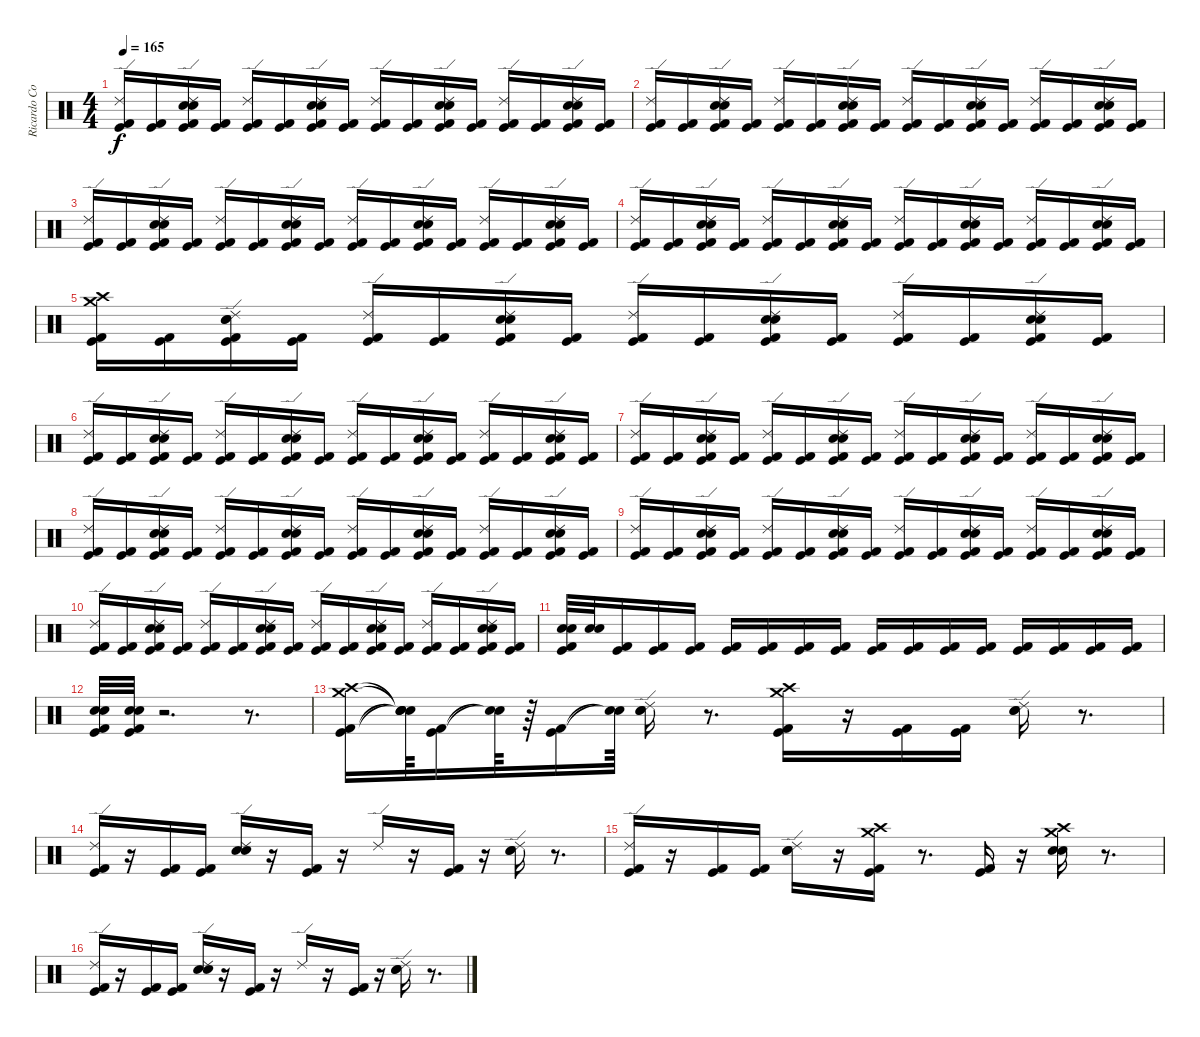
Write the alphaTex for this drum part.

\track ("Ricardo Confessori" "Ricardo Co") {instrument percussion}
\staff {score}
\articulation defaults
\ts (4 4)
\tempo 165
\clef neutral
\ks c
("Ride (edge) 2" "Kick (hit) 2" "Kick (hit)").16{dy f} ("Kick (hit) 2" "Kick (hit)").16 ("Ride (edge) 2" "Electric Snare (hit)" "Snare (hit) 2" "Kick (hit) 2" "Kick (hit)").16 ("Kick (hit) 2" "Kick (hit)").16 ("Ride (edge) 2" "Kick (hit) 2" "Kick (hit)").16 ("Kick (hit) 2" "Kick (hit)").16 ("Ride (edge) 2" "Electric Snare (hit)" "Snare (hit) 2" "Kick (hit) 2" "Kick (hit)").16 ("Kick (hit) 2" "Kick (hit)").16 ("Ride (edge) 2" "Kick (hit) 2" "Kick (hit)").16 ("Kick (hit) 2" "Kick (hit)").16 ("Ride (edge) 2" "Electric Snare (hit)" "Snare (hit) 2" "Kick (hit) 2" "Kick (hit)").16 ("Kick (hit) 2" "Kick (hit)").16 ("Ride (edge) 2" "Kick (hit) 2" "Kick (hit)").16 ("Kick (hit) 2" "Kick (hit)").16 ("Ride (edge) 2" "Electric Snare (hit)" "Snare (hit) 2" "Kick (hit) 2" "Kick (hit)").16 ("Kick (hit) 2" "Kick (hit)").16 |
("Ride (edge) 2" "Kick (hit) 2" "Kick (hit)").16 ("Kick (hit) 2" "Kick (hit)").16 ("Ride (edge) 2" "Electric Snare (hit)" "Snare (hit) 2" "Kick (hit) 2" "Kick (hit)").16 ("Kick (hit) 2" "Kick (hit)").16 ("Ride (edge) 2" "Kick (hit) 2" "Kick (hit)").16 ("Kick (hit) 2" "Kick (hit)").16 ("Ride (edge) 2" "Electric Snare (hit)" "Snare (hit) 2" "Kick (hit) 2" "Kick (hit)").16 ("Kick (hit) 2" "Kick (hit)").16 ("Ride (edge) 2" "Kick (hit) 2" "Kick (hit)").16 ("Kick (hit) 2" "Kick (hit)").16 ("Ride (edge) 2" "Electric Snare (hit)" "Snare (hit) 2" "Kick (hit) 2" "Kick (hit)").16 ("Kick (hit) 2" "Kick (hit)").16 ("Ride (edge) 2" "Kick (hit) 2" "Kick (hit)").16 ("Kick (hit) 2" "Kick (hit)").16 ("Ride (edge) 2" "Electric Snare (hit)" "Snare (hit) 2" "Kick (hit) 2" "Kick (hit)").16 ("Kick (hit) 2" "Kick (hit)").16 |
("Ride (edge) 2" "Kick (hit) 2" "Kick (hit)").16 ("Kick (hit) 2" "Kick (hit)").16 ("Ride (edge) 2" "Electric Snare (hit)" "Snare (hit) 2" "Kick (hit) 2" "Kick (hit)").16 ("Kick (hit) 2" "Kick (hit)").16 ("Ride (edge) 2" "Kick (hit) 2" "Kick (hit)").16 ("Kick (hit) 2" "Kick (hit)").16 ("Ride (edge) 2" "Electric Snare (hit)" "Snare (hit) 2" "Kick (hit) 2" "Kick (hit)").16 ("Kick (hit) 2" "Kick (hit)").16 ("Ride (edge) 2" "Kick (hit) 2" "Kick (hit)").16 ("Kick (hit) 2" "Kick (hit)").16 ("Ride (edge) 2" "Electric Snare (hit)" "Snare (hit) 2" "Kick (hit) 2" "Kick (hit)").16 ("Kick (hit) 2" "Kick (hit)").16 ("Ride (edge) 2" "Kick (hit) 2" "Kick (hit)").16 ("Kick (hit) 2" "Kick (hit)").16 ("Ride (edge) 2" "Electric Snare (hit)" "Snare (hit) 2" "Kick (hit) 2" "Kick (hit)").16 ("Kick (hit) 2" "Kick (hit)").16 |
("Ride (edge) 2" "Kick (hit) 2" "Kick (hit)").16 ("Kick (hit) 2" "Kick (hit)").16 ("Ride (edge) 2" "Electric Snare (hit)" "Snare (hit) 2" "Kick (hit) 2" "Kick (hit)").16 ("Kick (hit) 2" "Kick (hit)").16 ("Ride (edge) 2" "Kick (hit) 2" "Kick (hit)").16 ("Kick (hit) 2" "Kick (hit)").16 ("Ride (edge) 2" "Electric Snare (hit)" "Snare (hit) 2" "Kick (hit) 2" "Kick (hit)").16 ("Kick (hit) 2" "Kick (hit)").16 ("Ride (edge) 2" "Kick (hit) 2" "Kick (hit)").16 ("Kick (hit) 2" "Kick (hit)").16 ("Ride (edge) 2" "Electric Snare (hit)" "Snare (hit) 2" "Kick (hit) 2" "Kick (hit)").16 ("Kick (hit) 2" "Kick (hit)").16 ("Ride (edge) 2" "Kick (hit) 2" "Kick (hit)").16 ("Kick (hit) 2" "Kick (hit)").16 ("Ride (edge) 2" "Electric Snare (hit)" "Snare (hit) 2" "Kick (hit) 2" "Kick (hit)").16 ("Kick (hit) 2" "Kick (hit)").16 |
("Crash high (hit)" "Crash medium (hit)" "Kick (hit) 2" "Kick (hit)").16 ("Kick (hit) 2" "Kick (hit)").16 ("Ride (edge) 2" "Electric Snare (hit)" "Snare (hit) 2" "Kick (hit) 2" "Kick (hit)").16 ("Kick (hit) 2" "Kick (hit)").16 ("Ride (edge) 2" "Kick (hit) 2" "Kick (hit)").16 ("Kick (hit) 2" "Kick (hit)").16 ("Ride (edge) 2" "Electric Snare (hit)" "Snare (hit) 2" "Kick (hit) 2" "Kick (hit)").16 ("Kick (hit) 2" "Kick (hit)").16 ("Ride (edge) 2" "Kick (hit) 2" "Kick (hit)").16 ("Kick (hit) 2" "Kick (hit)").16 ("Ride (edge) 2" "Electric Snare (hit)" "Snare (hit) 2" "Kick (hit) 2" "Kick (hit)").16 ("Kick (hit) 2" "Kick (hit)").16 ("Ride (edge) 2" "Kick (hit) 2" "Kick (hit)").16 ("Kick (hit) 2" "Kick (hit)").16 ("Ride (edge) 2" "Electric Snare (hit)" "Snare (hit) 2" "Kick (hit) 2" "Kick (hit)").16 ("Kick (hit) 2" "Kick (hit)").16 |
("Ride (edge) 2" "Kick (hit) 2" "Kick (hit)").16 ("Kick (hit) 2" "Kick (hit)").16 ("Ride (edge) 2" "Electric Snare (hit)" "Snare (hit) 2" "Kick (hit) 2" "Kick (hit)").16 ("Kick (hit) 2" "Kick (hit)").16 ("Ride (edge) 2" "Kick (hit) 2" "Kick (hit)").16 ("Kick (hit) 2" "Kick (hit)").16 ("Ride (edge) 2" "Electric Snare (hit)" "Snare (hit) 2" "Kick (hit) 2" "Kick (hit)").16 ("Kick (hit) 2" "Kick (hit)").16 ("Ride (edge) 2" "Kick (hit) 2" "Kick (hit)").16 ("Kick (hit) 2" "Kick (hit)").16 ("Ride (edge) 2" "Electric Snare (hit)" "Snare (hit) 2" "Kick (hit) 2" "Kick (hit)").16 ("Kick (hit) 2" "Kick (hit)").16 ("Ride (edge) 2" "Kick (hit) 2" "Kick (hit)").16 ("Kick (hit) 2" "Kick (hit)").16 ("Ride (edge) 2" "Electric Snare (hit)" "Snare (hit) 2" "Kick (hit) 2" "Kick (hit)").16 ("Kick (hit) 2" "Kick (hit)").16 |
("Ride (edge) 2" "Kick (hit) 2" "Kick (hit)").16 ("Kick (hit) 2" "Kick (hit)").16 ("Ride (edge) 2" "Electric Snare (hit)" "Snare (hit) 2" "Kick (hit) 2" "Kick (hit)").16 ("Kick (hit) 2" "Kick (hit)").16 ("Ride (edge) 2" "Kick (hit) 2" "Kick (hit)").16 ("Kick (hit) 2" "Kick (hit)").16 ("Ride (edge) 2" "Electric Snare (hit)" "Snare (hit) 2" "Kick (hit) 2" "Kick (hit)").16 ("Kick (hit) 2" "Kick (hit)").16 ("Ride (edge) 2" "Kick (hit) 2" "Kick (hit)").16 ("Kick (hit) 2" "Kick (hit)").16 ("Ride (edge) 2" "Electric Snare (hit)" "Snare (hit) 2" "Kick (hit) 2" "Kick (hit)").16 ("Kick (hit) 2" "Kick (hit)").16 ("Ride (edge) 2" "Kick (hit) 2" "Kick (hit)").16 ("Kick (hit) 2" "Kick (hit)").16 ("Ride (edge) 2" "Electric Snare (hit)" "Snare (hit) 2" "Kick (hit) 2" "Kick (hit)").16 ("Kick (hit) 2" "Kick (hit)").16 |
("Ride (edge) 2" "Kick (hit) 2" "Kick (hit)").16 ("Kick (hit) 2" "Kick (hit)").16 ("Ride (edge) 2" "Electric Snare (hit)" "Snare (hit) 2" "Kick (hit) 2" "Kick (hit)").16 ("Kick (hit) 2" "Kick (hit)").16 ("Ride (edge) 2" "Kick (hit) 2" "Kick (hit)").16 ("Kick (hit) 2" "Kick (hit)").16 ("Ride (edge) 2" "Electric Snare (hit)" "Snare (hit) 2" "Kick (hit) 2" "Kick (hit)").16 ("Kick (hit) 2" "Kick (hit)").16 ("Ride (edge) 2" "Kick (hit) 2" "Kick (hit)").16 ("Kick (hit) 2" "Kick (hit)").16 ("Ride (edge) 2" "Electric Snare (hit)" "Snare (hit) 2" "Kick (hit) 2" "Kick (hit)").16 ("Kick (hit) 2" "Kick (hit)").16 ("Ride (edge) 2" "Kick (hit) 2" "Kick (hit)").16 ("Kick (hit) 2" "Kick (hit)").16 ("Ride (edge) 2" "Electric Snare (hit)" "Snare (hit) 2" "Kick (hit) 2" "Kick (hit)").16 ("Kick (hit) 2" "Kick (hit)").16 |
("Ride (edge) 2" "Kick (hit) 2" "Kick (hit)").16 ("Kick (hit) 2" "Kick (hit)").16 ("Ride (edge) 2" "Electric Snare (hit)" "Snare (hit) 2" "Kick (hit) 2" "Kick (hit)").16 ("Kick (hit) 2" "Kick (hit)").16 ("Ride (edge) 2" "Kick (hit) 2" "Kick (hit)").16 ("Kick (hit) 2" "Kick (hit)").16 ("Ride (edge) 2" "Electric Snare (hit)" "Snare (hit) 2" "Kick (hit) 2" "Kick (hit)").16 ("Kick (hit) 2" "Kick (hit)").16 ("Ride (edge) 2" "Kick (hit) 2" "Kick (hit)").16 ("Kick (hit) 2" "Kick (hit)").16 ("Ride (edge) 2" "Electric Snare (hit)" "Snare (hit) 2" "Kick (hit) 2" "Kick (hit)").16 ("Kick (hit) 2" "Kick (hit)").16 ("Ride (edge) 2" "Kick (hit) 2" "Kick (hit)").16 ("Kick (hit) 2" "Kick (hit)").16 ("Ride (edge) 2" "Electric Snare (hit)" "Snare (hit) 2" "Kick (hit) 2" "Kick (hit)").16 ("Kick (hit) 2" "Kick (hit)").16 |
("Ride (edge) 2" "Kick (hit) 2" "Kick (hit)").16 ("Kick (hit) 2" "Kick (hit)").16 ("Ride (edge) 2" "Electric Snare (hit)" "Snare (hit) 2" "Kick (hit) 2" "Kick (hit)").16 ("Kick (hit) 2" "Kick (hit)").16 ("Ride (edge) 2" "Kick (hit) 2" "Kick (hit)").16 ("Kick (hit) 2" "Kick (hit)").16 ("Ride (edge) 2" "Electric Snare (hit)" "Snare (hit) 2" "Kick (hit) 2" "Kick (hit)").16 ("Kick (hit) 2" "Kick (hit)").16 ("Ride (edge) 2" "Kick (hit) 2" "Kick (hit)").16 ("Kick (hit) 2" "Kick (hit)").16 ("Ride (edge) 2" "Electric Snare (hit)" "Snare (hit) 2" "Kick (hit) 2" "Kick (hit)").16 ("Kick (hit) 2" "Kick (hit)").16 ("Ride (edge) 2" "Kick (hit) 2" "Kick (hit)").16 ("Kick (hit) 2" "Kick (hit)").16 ("Ride (edge) 2" "Electric Snare (hit)" "Snare (hit) 2" "Kick (hit) 2" "Kick (hit)").16 ("Kick (hit) 2" "Kick (hit)").16 |
("Electric Snare (hit)" "Snare (hit) 2" "Kick (hit) 2" "Kick (hit)").32 ("Electric Snare (hit)" "Snare (hit) 2").32 ("Kick (hit) 2" "Kick (hit)").16 ("Kick (hit) 2" "Kick (hit)").16 ("Kick (hit) 2" "Kick (hit)").16 ("Kick (hit) 2" "Kick (hit)").16 ("Kick (hit) 2" "Kick (hit)").16 ("Kick (hit) 2" "Kick (hit)").16 ("Kick (hit) 2" "Kick (hit)").16 ("Kick (hit) 2" "Kick (hit)").16 ("Kick (hit) 2" "Kick (hit)").16 ("Kick (hit) 2" "Kick (hit)").16 ("Kick (hit) 2" "Kick (hit)").16 ("Kick (hit) 2" "Kick (hit)").16 ("Kick (hit) 2" "Kick (hit)").16 ("Kick (hit) 2" "Kick (hit)").16 ("Kick (hit) 2" "Kick (hit)").16 |
("Electric Snare (hit)" "Kick (hit) 2" "Kick (hit)" "Snare (hit) 2").32 ("Electric Snare (hit)" "Kick (hit) 2" "Kick (hit)" "Snare (hit) 2").32 r.2{d} r.8{d} |
("Crash high (hit)" "Crash medium (hit)" "Kick (hit) 2" "Kick (hit)").16 ("Snare (hit)"{t} "Snare (hit)"{t} "Snare (hit)"{t} "Snare (hit)"{t}).64 ("Kick (hit) 2" "Kick (hit)").16 ("Snare (hit)"{t} "Snare (hit)"{t}).64 r.64 ("Kick (hit) 2" "Kick (hit)").16 ("Snare (hit)"{t} "Snare (hit)"{t}).64 ("Ride (edge) 2" "Electric Snare (hit)" "Snare (hit) 2").16 r.8{d} ("Crash high (hit)" "Crash medium (hit)" "Kick (hit) 2" "Kick (hit)").16 r.16 ("Kick (hit)" "Kick (hit) 2").16 ("Kick (hit) 2" "Kick (hit)").16 ("Ride (edge) 2" "Electric Snare (hit)" "Snare (hit) 2").16 r.8{d} |
("Ride (edge) 2" "Kick (hit) 2" "Kick (hit)").16 r.16 ("Kick (hit) 2" "Kick (hit)").16 ("Kick (hit) 2" "Kick (hit)").16 ("Ride (edge) 2" "Electric Snare (hit)" "Snare (hit) 2").16 r.16 ("Kick (hit) 2" "Kick (hit)").16 r.16 "Ride (edge) 2".16 r.16 ("Kick (hit)" "Kick (hit) 2").16 r.16 ("Ride (edge) 2" "Electric Snare (hit)" "Snare (hit) 2").16 r.8{d} |
("Ride (edge) 2" "Kick (hit) 2" "Kick (hit)").16 r.16 ("Kick (hit) 2" "Kick (hit)").16 ("Kick (hit) 2" "Kick (hit)").16 ("Ride (edge) 2" "Electric Snare (hit)" "Snare (hit) 2").16 r.16 ("Crash high (hit)" "Kick (hit) 2" "Kick (hit)" "Crash medium (hit)").16 r.8{d} ("Kick (hit) 2" "Kick (hit)").16 r.16 ("Crash high (hit)" "Crash medium (hit)" "Electric Snare (hit)" "Snare (hit) 2").16 r.8{d} |
("Ride (edge) 2" "Kick (hit) 2" "Kick (hit)").16 r.16 ("Kick (hit) 2" "Kick (hit)").16 ("Kick (hit) 2" "Kick (hit)").16 ("Ride (edge) 2" "Electric Snare (hit)" "Snare (hit) 2").16 r.16 ("Kick (hit) 2" "Kick (hit)").16 r.16 "Ride (edge) 2".16 r.16 ("Kick (hit) 2" "Kick (hit)").16 r.16 ("Ride (edge) 2" "Electric Snare (hit)" "Snare (hit) 2").16 r.8{d}
